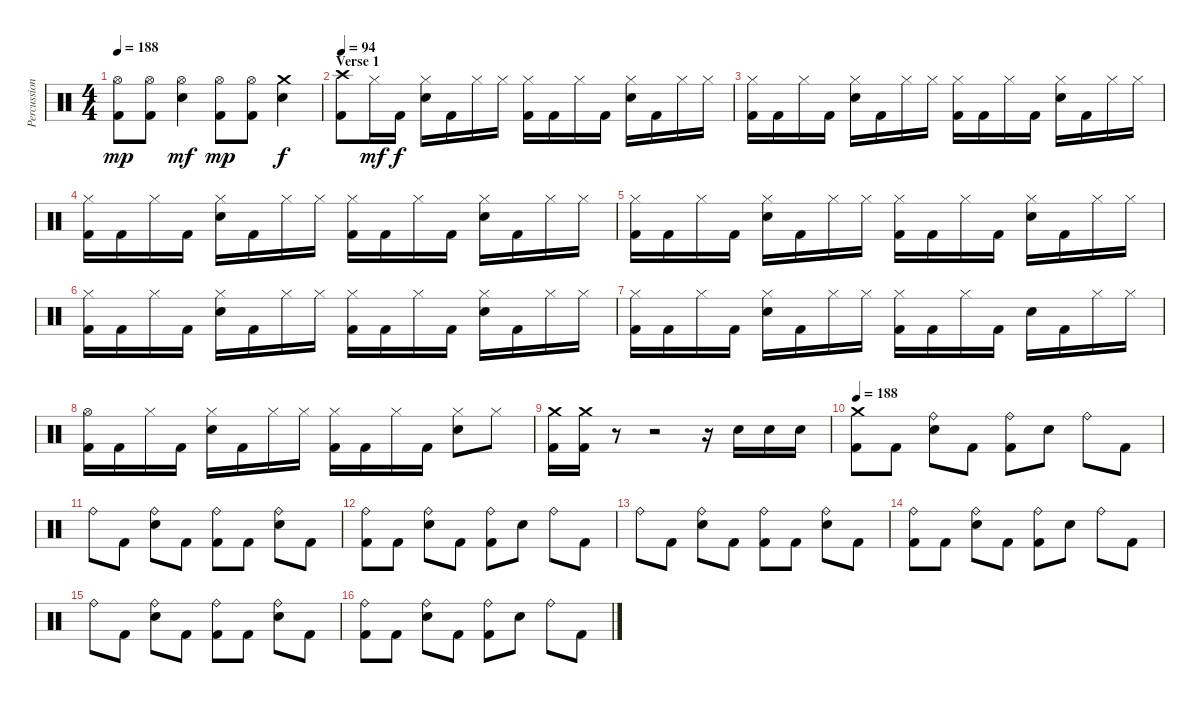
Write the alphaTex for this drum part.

\track ("Percussions" "Percussion") {instrument percussion}
\staff {score}
\articulation defaults
\ts (4 4)
\tempo 188
\clef neutral
\ks c
("Hi-Hat (open)" "Kick (hit) 2").8{dy mp} ("Hi-Hat (open)" "Kick (hit) 2").8 ("Hi-Hat (open)" "Snare (hit) 2").4{dy mf} ("Hi-Hat (open)" "Kick (hit) 2").8{dy mp} ("Hi-Hat (open)" "Kick (hit) 2").8 ("Crash medium (hit)" "Snare (hit) 2").4{dy f} |
\section ("" "Verse 1")
\tempo 94
("Crash high (hit)" "Kick (hit) 2").8 "Hi-Hat (closed)".16{dy mf} "Kick (hit) 2".16{dy f} ("Hi-Hat (closed)" "Snare (hit) 2").16 "Kick (hit) 2".16 "Hi-Hat (closed)".16 "Hi-Hat (closed)".16 ("Hi-Hat (closed)" "Kick (hit) 2").16 "Kick (hit) 2".16 "Hi-Hat (closed)".16 "Kick (hit) 2".16 ("Hi-Hat (closed)" "Snare (hit) 2").16 "Kick (hit) 2".16 "Hi-Hat (closed)".16 "Hi-Hat (closed)".16 |
("Hi-Hat (closed)" "Kick (hit) 2").16 "Kick (hit) 2".16 "Hi-Hat (closed)".16 "Kick (hit) 2".16 ("Hi-Hat (closed)" "Snare (hit) 2").16 "Kick (hit) 2".16 "Hi-Hat (closed)".16 "Hi-Hat (closed)".16 ("Hi-Hat (closed)" "Kick (hit) 2").16 "Kick (hit) 2".16 "Hi-Hat (closed)".16 "Kick (hit) 2".16 ("Hi-Hat (closed)" "Snare (hit) 2").16 "Kick (hit) 2".16 "Hi-Hat (closed)".16 "Hi-Hat (closed)".16 |
("Hi-Hat (closed)" "Kick (hit) 2").16 "Kick (hit) 2".16 "Hi-Hat (closed)".16 "Kick (hit) 2".16 ("Hi-Hat (closed)" "Snare (hit) 2").16 "Kick (hit) 2".16 "Hi-Hat (closed)".16 "Hi-Hat (closed)".16 ("Hi-Hat (closed)" "Kick (hit) 2").16 "Kick (hit) 2".16 "Hi-Hat (closed)".16 "Kick (hit) 2".16 ("Hi-Hat (closed)" "Snare (hit) 2").16 "Kick (hit) 2".16 "Hi-Hat (closed)".16 "Hi-Hat (closed)".16 |
("Hi-Hat (closed)" "Kick (hit) 2").16 "Kick (hit) 2".16 "Hi-Hat (closed)".16 "Kick (hit) 2".16 ("Hi-Hat (closed)" "Snare (hit) 2").16 "Kick (hit) 2".16 "Hi-Hat (closed)".16 "Hi-Hat (closed)".16 ("Hi-Hat (closed)" "Kick (hit) 2").16 "Kick (hit) 2".16 "Hi-Hat (closed)".16 "Kick (hit) 2".16 ("Hi-Hat (closed)" "Snare (hit) 2").16 "Kick (hit) 2".16 "Hi-Hat (closed)".16 "Hi-Hat (closed)".16 |
("Hi-Hat (closed)" "Kick (hit) 2").16 "Kick (hit) 2".16 "Hi-Hat (closed)".16 "Kick (hit) 2".16 ("Hi-Hat (closed)" "Snare (hit) 2").16 "Kick (hit) 2".16 "Hi-Hat (closed)".16 "Hi-Hat (closed)".16 ("Hi-Hat (closed)" "Kick (hit) 2").16 "Kick (hit) 2".16 "Hi-Hat (closed)".16 "Kick (hit) 2".16 ("Hi-Hat (closed)" "Snare (hit) 2").16 "Kick (hit) 2".16 "Hi-Hat (closed)".16 "Hi-Hat (closed)".16 |
("Hi-Hat (closed)" "Kick (hit) 2").16 "Kick (hit) 2".16 "Hi-Hat (closed)".16 "Kick (hit) 2".16 ("Hi-Hat (closed)" "Snare (hit) 2").16 "Kick (hit) 2".16 "Hi-Hat (closed)".16 "Hi-Hat (closed)".16 ("Hi-Hat (closed)" "Kick (hit) 2").16 "Kick (hit) 2".16 "Hi-Hat (closed)".16 "Kick (hit) 2".16 "Snare (hit) 2".16 "Kick (hit) 2".16 "Hi-Hat (closed)".16 "Hi-Hat (closed)".16 |
("Hi-Hat (open)" "Kick (hit) 2").16 "Kick (hit) 2".16 "Hi-Hat (closed)".16 "Kick (hit) 2".16 ("Hi-Hat (closed)" "Snare (hit) 2").16 "Kick (hit) 2".16 "Hi-Hat (closed)".16 "Hi-Hat (closed)".16 ("Hi-Hat (closed)" "Kick (hit) 2").16 "Kick (hit) 2".16 "Hi-Hat (closed)".16 "Kick (hit) 2".16 ("Hi-Hat (closed)" "Snare (hit) 2").8 "Hi-Hat (closed)".8 |
("Crash medium (hit)" "Kick (hit) 2").16 ("Crash medium (hit)" "Kick (hit) 2").16 r.8 r.2 r.16 "Snare (hit) 2".16 "Snare (hit) 2".16 "Snare (hit) 2".16 |
\tempo 188
("Crash medium (hit)" "Kick (hit) 2").8 "Kick (hit) 2".8 ("Ride (bell)" "Snare (hit) 2").8 "Kick (hit) 2".8 ("Ride (bell)" "Kick (hit) 2").8 "Snare (hit) 2".8 "Ride (bell)".8 "Kick (hit) 2".8 |
"Ride (bell)".8 "Kick (hit) 2".8 ("Ride (bell)" "Snare (hit) 2").8 "Kick (hit) 2".8 ("Ride (bell)" "Kick (hit) 2").8 "Kick (hit) 2".8 ("Ride (bell)" "Snare (hit) 2").8 "Kick (hit) 2".8 |
("Ride (bell)" "Kick (hit) 2").8 "Kick (hit) 2".8 ("Ride (bell)" "Snare (hit) 2").8 "Kick (hit) 2".8 ("Ride (bell)" "Kick (hit) 2").8 "Snare (hit) 2".8 "Ride (bell)".8 "Kick (hit) 2".8 |
"Ride (bell)".8 "Kick (hit) 2".8 ("Ride (bell)" "Snare (hit) 2").8 "Kick (hit) 2".8 ("Ride (bell)" "Kick (hit) 2").8 "Kick (hit) 2".8 ("Ride (bell)" "Snare (hit) 2").8 "Kick (hit) 2".8 |
("Ride (bell)" "Kick (hit) 2").8 "Kick (hit) 2".8 ("Ride (bell)" "Snare (hit) 2").8 "Kick (hit) 2".8 ("Ride (bell)" "Kick (hit) 2").8 "Snare (hit) 2".8 "Ride (bell)".8 "Kick (hit) 2".8 |
"Ride (bell)".8 "Kick (hit) 2".8 ("Ride (bell)" "Snare (hit) 2").8 "Kick (hit) 2".8 ("Ride (bell)" "Kick (hit) 2").8 "Kick (hit) 2".8 ("Ride (bell)" "Snare (hit) 2").8 "Kick (hit) 2".8 |
("Ride (bell)" "Kick (hit) 2").8 "Kick (hit) 2".8 ("Ride (bell)" "Snare (hit) 2").8 "Kick (hit) 2".8 ("Ride (bell)" "Kick (hit) 2").8 "Snare (hit) 2".8 "Ride (bell)".8 "Kick (hit) 2".8
